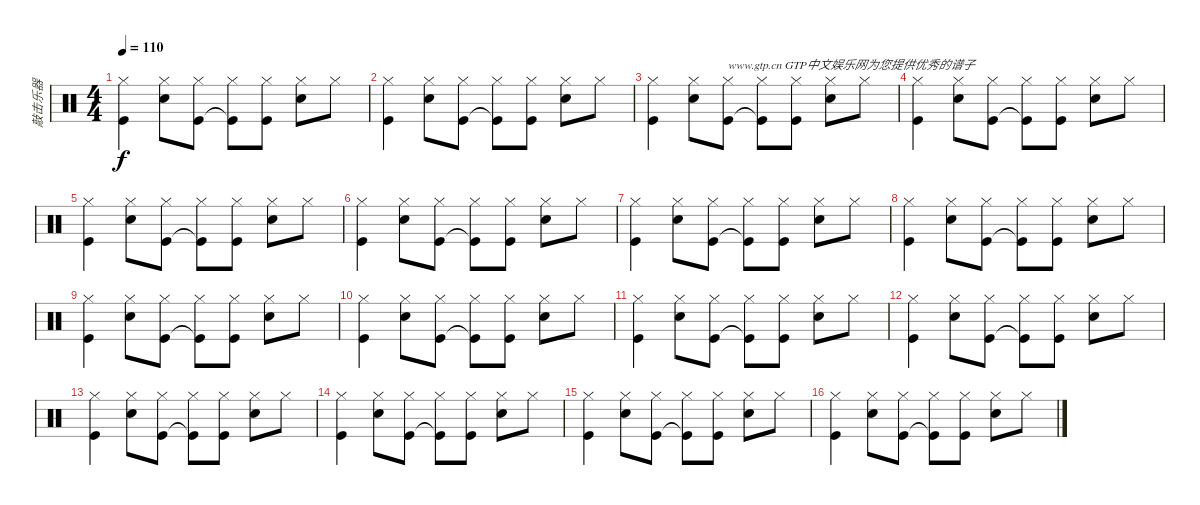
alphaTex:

\track ("敲击乐器" "敲击乐器") {instrument percussion}
\staff {score}
\articulation defaults
\ts (4 4)
\tempo 110
\clef neutral
\ks c
("Hi-Hat (closed)" "Kick (hit)").4{dy f} ("Hi-Hat (closed)" "Snare (hit) 2").8 ("Hi-Hat (closed)" "Kick (hit)").8 ("Hi-Hat (closed)" "Kick (hit)"{t}).8 ("Kick (hit)" "Hi-Hat (closed)").8 ("Snare (hit) 2" "Hi-Hat (closed)").8 "Hi-Hat (closed)".8 |
("Hi-Hat (closed)" "Kick (hit)").4 ("Hi-Hat (closed)" "Snare (hit) 2").8 ("Hi-Hat (closed)" "Kick (hit)").8 ("Hi-Hat (closed)" "Kick (hit)"{t}).8 ("Kick (hit)" "Hi-Hat (closed)").8 ("Snare (hit) 2" "Hi-Hat (closed)").8 "Hi-Hat (closed)".8 |
("Hi-Hat (closed)" "Kick (hit)").4 ("Hi-Hat (closed)" "Snare (hit) 2").8 ("Hi-Hat (closed)" "Kick (hit)").8{txt "www.gtp.cn GTP中文娱乐网为您提供优秀的谱子"} ("Hi-Hat (closed)" "Kick (hit)"{t}).8 ("Kick (hit)" "Hi-Hat (closed)").8 ("Snare (hit) 2" "Hi-Hat (closed)").8 "Hi-Hat (closed)".8 |
("Hi-Hat (closed)" "Kick (hit)").4 ("Hi-Hat (closed)" "Snare (hit) 2").8 ("Hi-Hat (closed)" "Kick (hit)").8 ("Hi-Hat (closed)" "Kick (hit)"{t}).8 ("Kick (hit)" "Hi-Hat (closed)").8 ("Snare (hit) 2" "Hi-Hat (closed)").8 "Hi-Hat (closed)".8 |
("Hi-Hat (closed)" "Kick (hit)").4 ("Hi-Hat (closed)" "Snare (hit) 2").8 ("Hi-Hat (closed)" "Kick (hit)").8 ("Hi-Hat (closed)" "Kick (hit)"{t}).8 ("Kick (hit)" "Hi-Hat (closed)").8 ("Snare (hit) 2" "Hi-Hat (closed)").8 "Hi-Hat (closed)".8 |
("Hi-Hat (closed)" "Kick (hit)").4 ("Hi-Hat (closed)" "Snare (hit) 2").8 ("Hi-Hat (closed)" "Kick (hit)").8 ("Hi-Hat (closed)" "Kick (hit)"{t}).8 ("Kick (hit)" "Hi-Hat (closed)").8 ("Snare (hit) 2" "Hi-Hat (closed)").8 "Hi-Hat (closed)".8 |
("Hi-Hat (closed)" "Kick (hit)").4 ("Hi-Hat (closed)" "Snare (hit) 2").8 ("Hi-Hat (closed)" "Kick (hit)").8 ("Hi-Hat (closed)" "Kick (hit)"{t}).8 ("Kick (hit)" "Hi-Hat (closed)").8 ("Snare (hit) 2" "Hi-Hat (closed)").8 "Hi-Hat (closed)".8 |
("Hi-Hat (closed)" "Kick (hit)").4 ("Hi-Hat (closed)" "Snare (hit) 2").8 ("Hi-Hat (closed)" "Kick (hit)").8 ("Hi-Hat (closed)" "Kick (hit)"{t}).8 ("Kick (hit)" "Hi-Hat (closed)").8 ("Snare (hit) 2" "Hi-Hat (closed)").8 "Hi-Hat (closed)".8 |
("Hi-Hat (closed)" "Kick (hit)").4 ("Hi-Hat (closed)" "Snare (hit) 2").8 ("Hi-Hat (closed)" "Kick (hit)").8 ("Hi-Hat (closed)" "Kick (hit)"{t}).8 ("Kick (hit)" "Hi-Hat (closed)").8 ("Snare (hit) 2" "Hi-Hat (closed)").8 "Hi-Hat (closed)".8 |
("Hi-Hat (closed)" "Kick (hit)").4 ("Hi-Hat (closed)" "Snare (hit) 2").8 ("Hi-Hat (closed)" "Kick (hit)").8 ("Hi-Hat (closed)" "Kick (hit)"{t}).8 ("Kick (hit)" "Hi-Hat (closed)").8 ("Snare (hit) 2" "Hi-Hat (closed)").8 "Hi-Hat (closed)".8 |
("Hi-Hat (closed)" "Kick (hit)").4 ("Hi-Hat (closed)" "Snare (hit) 2").8 ("Hi-Hat (closed)" "Kick (hit)").8 ("Hi-Hat (closed)" "Kick (hit)"{t}).8 ("Kick (hit)" "Hi-Hat (closed)").8 ("Snare (hit) 2" "Hi-Hat (closed)").8 "Hi-Hat (closed)".8 |
("Hi-Hat (closed)" "Kick (hit)").4 ("Hi-Hat (closed)" "Snare (hit) 2").8 ("Hi-Hat (closed)" "Kick (hit)").8 ("Hi-Hat (closed)" "Kick (hit)"{t}).8 ("Kick (hit)" "Hi-Hat (closed)").8 ("Snare (hit) 2" "Hi-Hat (closed)").8 "Hi-Hat (closed)".8 |
("Hi-Hat (closed)" "Kick (hit)").4 ("Hi-Hat (closed)" "Snare (hit) 2").8 ("Hi-Hat (closed)" "Kick (hit)").8 ("Hi-Hat (closed)" "Kick (hit)"{t}).8 ("Kick (hit)" "Hi-Hat (closed)").8 ("Snare (hit) 2" "Hi-Hat (closed)").8 "Hi-Hat (closed)".8 |
("Hi-Hat (closed)" "Kick (hit)").4 ("Hi-Hat (closed)" "Snare (hit) 2").8 ("Hi-Hat (closed)" "Kick (hit)").8 ("Hi-Hat (closed)" "Kick (hit)"{t}).8 ("Kick (hit)" "Hi-Hat (closed)").8 ("Snare (hit) 2" "Hi-Hat (closed)").8 "Hi-Hat (closed)".8 |
("Hi-Hat (closed)" "Kick (hit)").4 ("Hi-Hat (closed)" "Snare (hit) 2").8 ("Hi-Hat (closed)" "Kick (hit)").8 ("Hi-Hat (closed)" "Kick (hit)"{t}).8 ("Kick (hit)" "Hi-Hat (closed)").8 ("Snare (hit) 2" "Hi-Hat (closed)").8 "Hi-Hat (closed)".8 |
("Hi-Hat (closed)" "Kick (hit)").4 ("Hi-Hat (closed)" "Snare (hit) 2").8 ("Hi-Hat (closed)" "Kick (hit)").8 ("Hi-Hat (closed)" "Kick (hit)"{t}).8 ("Kick (hit)" "Hi-Hat (closed)").8 ("Snare (hit) 2" "Hi-Hat (closed)").8 "Hi-Hat (closed)".8
